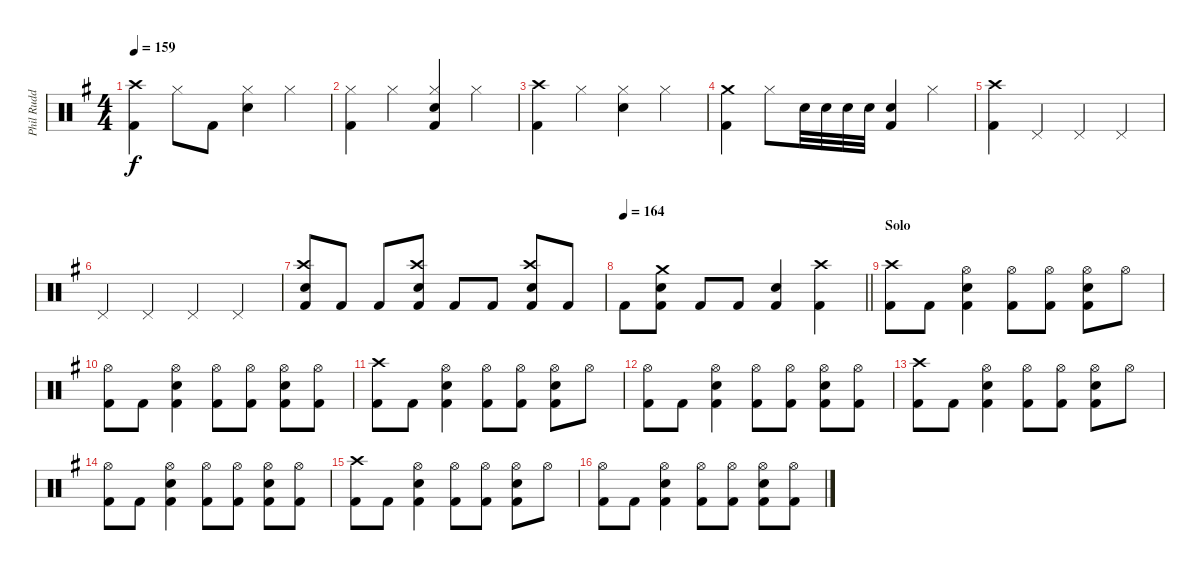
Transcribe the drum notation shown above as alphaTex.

\track ("Phil Rudd" "Phil Rudd") {instrument percussion}
\staff {score}
\articulation defaults
\ts (4 4)
\tempo 159
\clef neutral
\ks g
("Kick (hit) 2" "Crash high (hit)").4{dy f} "Hi-Hat (closed)".8 "Kick (hit) 2".8 ("Snare (hit) 2" "Hi-Hat (closed)").4 "Hi-Hat (closed)".4 |
("Hi-Hat (closed)" "Kick (hit) 2").4 "Hi-Hat (closed)".4 ("Kick (hit) 2" "Snare (hit) 2" "Hi-Hat (closed)").4 "Hi-Hat (closed)".4 |
("Crash high (hit)" "Kick (hit) 2").4 "Hi-Hat (closed)".4 ("Snare (hit) 2" "Hi-Hat (closed)").4 "Hi-Hat (closed)".4 |
("Crash medium (hit)" "Kick (hit) 2").4 "Hi-Hat (closed)".8 "Snare (hit) 2".32 "Snare (hit) 2".32 "Snare (hit) 2".32 "Snare (hit) 2".32 ("Kick (hit) 2" "Snare (hit) 2").4 "Hi-Hat (closed)".4 |
("Crash high (hit)" "Kick (hit) 2").4 "Pedal Hi-Hat (hit)".4 "Pedal Hi-Hat (hit)".4 "Pedal Hi-Hat (hit)".4 |
"Pedal Hi-Hat (hit)".4 "Pedal Hi-Hat (hit)".4 "Pedal Hi-Hat (hit)".4 "Pedal Hi-Hat (hit)".4 |
("Crash high (hit)" "Snare (hit) 2" "Kick (hit) 2").8 "Kick (hit) 2".8 "Kick (hit) 2".8 ("Crash high (hit)" "Snare (hit) 2" "Kick (hit) 2").8 "Kick (hit) 2".8 "Kick (hit) 2".8 ("Snare (hit) 2" "Kick (hit) 2" "Crash high (hit)").8 "Kick (hit) 2".8 |
\tempo 164
\barLineRight lightlight "Kick (hit) 2".8
("Kick (hit) 2" "Crash medium (hit)" "Snare (hit) 2").8 "Kick (hit) 2".8 "Kick (hit) 2".8 ("Kick (hit) 2" "Snare (hit) 2").4 ("Kick (hit) 2" "Crash high (hit)").4 |
\section ("" "Solo")
("Crash high (hit)" "Kick (hit) 2").8 "Kick (hit) 2".8 ("Kick (hit) 2" "Hi-Hat (open)" "Snare (hit) 2").4 ("Hi-Hat (open)" "Kick (hit) 2").8 ("Kick (hit) 2" "Hi-Hat (open)").8 ("Kick (hit) 2" "Hi-Hat (open)" "Snare (hit) 2").8 "Hi-Hat (open)".8 |
("Kick (hit) 2" "Hi-Hat (open)").8 "Kick (hit) 2".8 ("Kick (hit) 2" "Snare (hit) 2" "Hi-Hat (open)").4 ("Kick (hit) 2" "Hi-Hat (open)").8 ("Kick (hit) 2" "Hi-Hat (open)").8 ("Kick (hit) 2" "Snare (hit) 2" "Hi-Hat (open)").8 ("Kick (hit) 2" "Hi-Hat (open)").8 |
("Crash high (hit)" "Kick (hit) 2").8 "Kick (hit) 2".8 ("Kick (hit) 2" "Hi-Hat (open)" "Snare (hit) 2").4 ("Hi-Hat (open)" "Kick (hit) 2").8 ("Kick (hit) 2" "Hi-Hat (open)").8 ("Kick (hit) 2" "Hi-Hat (open)" "Snare (hit) 2").8 "Hi-Hat (open)".8 |
("Kick (hit) 2" "Hi-Hat (open)").8 "Kick (hit) 2".8 ("Kick (hit) 2" "Snare (hit) 2" "Hi-Hat (open)").4 ("Kick (hit) 2" "Hi-Hat (open)").8 ("Kick (hit) 2" "Hi-Hat (open)").8 ("Kick (hit) 2" "Snare (hit) 2" "Hi-Hat (open)").8 ("Kick (hit) 2" "Hi-Hat (open)").8 |
("Crash high (hit)" "Kick (hit) 2").8 "Kick (hit) 2".8 ("Kick (hit) 2" "Hi-Hat (open)" "Snare (hit) 2").4 ("Hi-Hat (open)" "Kick (hit) 2").8 ("Kick (hit) 2" "Hi-Hat (open)").8 ("Kick (hit) 2" "Hi-Hat (open)" "Snare (hit) 2").8 "Hi-Hat (open)".8 |
("Kick (hit) 2" "Hi-Hat (open)").8 "Kick (hit) 2".8 ("Kick (hit) 2" "Snare (hit) 2" "Hi-Hat (open)").4 ("Kick (hit) 2" "Hi-Hat (open)").8 ("Kick (hit) 2" "Hi-Hat (open)").8 ("Kick (hit) 2" "Snare (hit) 2" "Hi-Hat (open)").8 ("Kick (hit) 2" "Hi-Hat (open)").8 |
("Crash high (hit)" "Kick (hit) 2").8 "Kick (hit) 2".8 ("Kick (hit) 2" "Hi-Hat (open)" "Snare (hit) 2").4 ("Hi-Hat (open)" "Kick (hit) 2").8 ("Kick (hit) 2" "Hi-Hat (open)").8 ("Kick (hit) 2" "Hi-Hat (open)" "Snare (hit) 2").8 "Hi-Hat (open)".8 |
("Kick (hit) 2" "Hi-Hat (open)").8 "Kick (hit) 2".8 ("Kick (hit) 2" "Snare (hit) 2" "Hi-Hat (open)").4 ("Kick (hit) 2" "Hi-Hat (open)").8 ("Kick (hit) 2" "Hi-Hat (open)").8 ("Kick (hit) 2" "Snare (hit) 2" "Hi-Hat (open)").8 ("Kick (hit) 2" "Hi-Hat (open)").8
